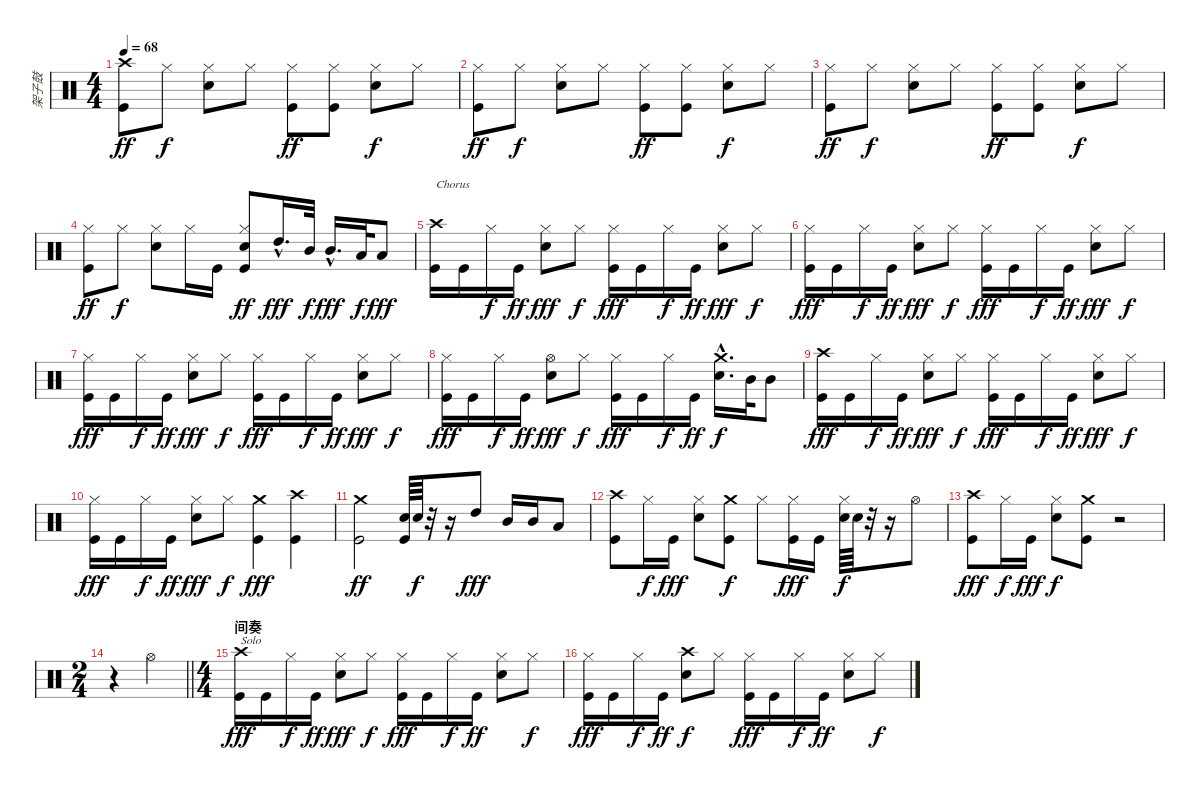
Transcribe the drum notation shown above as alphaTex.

\track ("架子鼓" "架子鼓") {instrument percussion}
\staff {score}
\articulation defaults
\ts (4 4)
\tempo 68
\clef neutral
\ks c
("Crash high (hit)" "Kick (hit)").8{dy ff} "Hi-Hat (closed)".8{dy f} ("Hi-Hat (closed)" "Snare (hit) 2").8 "Hi-Hat (closed)".8 ("Hi-Hat (closed)" "Kick (hit)").8{dy ff} ("Hi-Hat (closed)" "Kick (hit)").8 ("Hi-Hat (closed)" "Snare (hit) 2").8{dy f} "Hi-Hat (closed)".8 |
("Hi-Hat (closed)" "Kick (hit)").8{dy ff} "Hi-Hat (closed)".8{dy f} ("Hi-Hat (closed)" "Snare (hit) 2").8 "Hi-Hat (closed)".8 ("Hi-Hat (closed)" "Kick (hit)").8{dy ff} ("Hi-Hat (closed)" "Kick (hit)").8 ("Hi-Hat (closed)" "Snare (hit) 2").8{dy f} "Hi-Hat (closed)".8 |
("Hi-Hat (closed)" "Kick (hit)").8{dy ff} "Hi-Hat (closed)".8{dy f} ("Hi-Hat (closed)" "Snare (hit) 2").8 "Hi-Hat (closed)".8 ("Hi-Hat (closed)" "Kick (hit)").8{dy ff} ("Hi-Hat (closed)" "Kick (hit)").8 ("Hi-Hat (closed)" "Snare (hit) 2").8{dy f} "Hi-Hat (closed)".8 |
("Hi-Hat (closed)" "Kick (hit)").8{dy ff} "Hi-Hat (closed)".8{dy f} ("Hi-Hat (closed)" "Snare (hit) 2").8 "Hi-Hat (closed)".16 "Kick (hit)".16 ("Hi-Hat (closed)" "Snare (hit) 2" "Kick (hit)").8{dy ff} "High Tom (hit)"{hac}.16{d dy fff} "Mid Tom (hit)".32{dy f} "Mid Tom (hit)"{hac}.16{d dy fff} "Low Tom (hit)".32{dy f} "Low Tom (hit)".8{dy fff} |
("Crash high (hit)" "Kick (hit)").16{txt "Chorus"} "Kick (hit)".16 "Hi-Hat (closed)".16{dy f} "Kick (hit)".16{dy ff} ("Hi-Hat (closed)" "Snare (hit) 2").8{dy fff} "Hi-Hat (closed)".8{dy f} ("Hi-Hat (closed)" "Kick (hit)").16{dy fff} "Kick (hit)".16 "Hi-Hat (closed)".16{dy f} "Kick (hit)".16{dy ff} ("Hi-Hat (closed)" "Snare (hit) 2").8{dy fff} "Hi-Hat (closed)".8{dy f} |
("Hi-Hat (closed)" "Kick (hit)").16{dy fff} "Kick (hit)".16 "Hi-Hat (closed)".16{dy f} "Kick (hit)".16{dy ff} ("Hi-Hat (closed)" "Snare (hit) 2").8{dy fff} "Hi-Hat (closed)".8{dy f} ("Hi-Hat (closed)" "Kick (hit)").16{dy fff} "Kick (hit)".16 "Hi-Hat (closed)".16{dy f} "Kick (hit)".16{dy ff} ("Hi-Hat (closed)" "Snare (hit) 2").8{dy fff} "Hi-Hat (closed)".8{dy f} |
("Hi-Hat (closed)" "Kick (hit)").16{dy fff} "Kick (hit)".16 "Hi-Hat (closed)".16{dy f} "Kick (hit)".16{dy ff} ("Hi-Hat (closed)" "Snare (hit) 2").8{dy fff} "Hi-Hat (closed)".8{dy f} ("Hi-Hat (closed)" "Kick (hit)").16{dy fff} "Kick (hit)".16 "Hi-Hat (closed)".16{dy f} "Kick (hit)".16{dy ff} ("Hi-Hat (closed)" "Snare (hit) 2").8{dy fff} "Hi-Hat (closed)".8{dy f} |
("Hi-Hat (closed)" "Kick (hit)").16{dy fff} "Kick (hit)".16 "Hi-Hat (closed)".16{dy f} "Kick (hit)".16{dy ff} ("Hi-Hat (open)" "Snare (hit) 2").8{dy fff} "Hi-Hat (closed)".8{dy f} ("Hi-Hat (closed)" "Kick (hit)").16{dy fff} "Kick (hit)".16 "Hi-Hat (closed)".16{dy f} "Kick (hit)".16{dy ff} ("Crash medium (hit)"{hac} "Snare (hit) 2"{hac}).16{d dy f} "Mid Tom (hit)".32 "Mid Tom (hit)".8 |
("Crash high (hit)" "Kick (hit)").16{dy fff} "Kick (hit)".16 "Hi-Hat (closed)".16{dy f} "Kick (hit)".16{dy ff} ("Hi-Hat (closed)" "Snare (hit) 2").8{dy fff} "Hi-Hat (closed)".8{dy f} ("Hi-Hat (closed)" "Kick (hit)").16{dy fff} "Kick (hit)".16 "Hi-Hat (closed)".16{dy f} "Kick (hit)".16{dy ff} ("Hi-Hat (closed)" "Snare (hit) 2").8{dy fff} "Hi-Hat (closed)".8{dy f} |
("Hi-Hat (closed)" "Kick (hit)").16{dy fff} "Kick (hit)".16 "Hi-Hat (closed)".16{dy f} "Kick (hit)".16{dy ff} ("Hi-Hat (closed)" "Snare (hit) 2").8{dy fff} "Hi-Hat (closed)".8{dy f} ("Crash medium (hit)" "Kick (hit)").4{dy fff} ("Crash high (hit)" "Kick (hit)").4 |
("Crash medium (hit)" "Kick (hit)").2{dy ff} ("Snare (hit) 2" "Kick (hit)").64 "Snare (hit) 2".64{dy f} r.32 r.16 "High Tom (hit)".8{dy fff} "Mid Tom (hit)".16 "Mid Tom (hit)".16 "Low Tom (hit)".8 |
("Crash high (hit)" "Kick (hit)").8 "Hi-Hat (closed)".16{dy f} "Kick (hit)".16{dy fff} ("Hi-Hat (closed)" "Snare (hit) 2").8 ("Crash medium (hit)" "Kick (hit)").8{dy f} "Hi-Hat (closed)".8 ("Hi-Hat (closed)" "Kick (hit)").16{dy fff} "Kick (hit)".16 ("Hi-Hat (closed)" "Snare (hit) 2").64{dy f} "Snare (hit) 2".64 r.32 r.16 "Hi-Hat (open)".8 |
("Crash high (hit)" "Kick (hit)").8{dy fff} "Hi-Hat (closed)".16{dy f} "Kick (hit)".16{dy fff} ("Hi-Hat (closed)" "Snare (hit) 2").8{dy f} ("Crash medium (hit)" "Kick (hit)").8 r.2 |
\ts (2 4)
\barLineRight lightlight
r.4 "Hi-Hat (open)".4 |
\ts (4 4)
\section ("" "间奏")
("Crash high (hit)" "Kick (hit)").16{txt "Solo" dy fff} "Kick (hit)".16 "Hi-Hat (closed)".16{dy f} "Kick (hit)".16{dy ff} ("Hi-Hat (closed)" "Snare (hit) 2").8{dy fff} "Hi-Hat (closed)".8{dy f} ("Hi-Hat (closed)" "Kick (hit)").16{dy fff} "Kick (hit)".16 "Hi-Hat (closed)".16{dy f} "Kick (hit)".16{dy ff} ("Hi-Hat (closed)" "Snare (hit) 2").8 "Hi-Hat (closed)".8{dy f} |
("Hi-Hat (closed)" "Kick (hit)").16{dy fff} "Kick (hit)".16 "Hi-Hat (closed)".16{dy f} "Kick (hit)".16{dy ff} ("Crash high (hit)" "Snare (hit) 2").8{dy f} "Hi-Hat (closed)".8 ("Hi-Hat (closed)" "Kick (hit)").16{dy fff} "Kick (hit)".16 "Hi-Hat (closed)".16{dy f} "Kick (hit)".16{dy ff} ("Hi-Hat (closed)" "Snare (hit) 2").8 "Hi-Hat (closed)".8{dy f}
